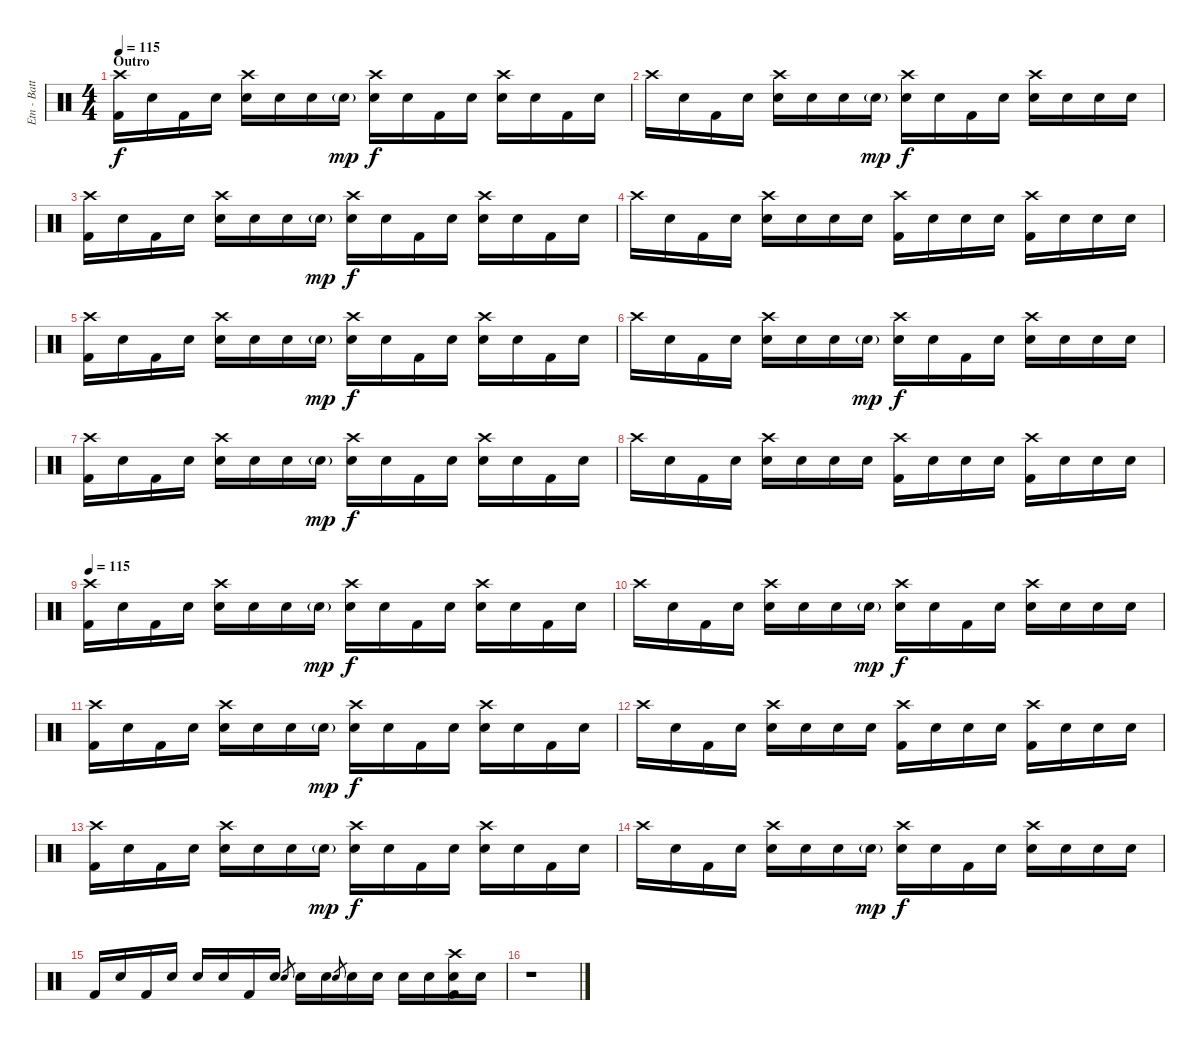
\track ("Etn - Batterie" "Etn - Batt") {instrument percussion}
\staff {score}
\articulation defaults
\ts (4 4)
\section ("" "Outro")
\tempo 115
\clef neutral
\ks c
("Crash high (hit)" "Kick (hit) 2").16{dy f volume 16 balance 8} "Snare (hit)".16 "Kick (hit) 2".16 "Snare (hit)".16 ("Crash high (hit)" "Electric Snare (hit)").16 "Snare (hit)".16 "Snare (hit)".16 "Electric Snare (hit)"{g}.16{dy mp} ("Crash high (hit)" "Electric Snare (hit)").16{dy f} "Snare (hit)".16 "Kick (hit) 2".16 "Snare (hit)".16 ("Crash high (hit)" "Electric Snare (hit)").16 "Snare (hit)".16 "Kick (hit) 2".16 "Snare (hit)".16 |
"Crash high (hit)".16 "Snare (hit)".16 "Kick (hit) 2".16 "Snare (hit)".16 ("Crash high (hit)" "Electric Snare (hit)").16 "Snare (hit)".16 "Snare (hit)".16 "Electric Snare (hit)"{g}.16{dy mp} ("Crash high (hit)" "Electric Snare (hit)").16{dy f} "Snare (hit)".16 "Kick (hit) 2".16 "Snare (hit)".16 ("Crash high (hit)" "Electric Snare (hit)").16 "Snare (hit)".16 "Electric Snare (hit)".16 "Electric Snare (hit)".16 |
("Crash high (hit)" "Kick (hit) 2").16 "Snare (hit)".16 "Kick (hit) 2".16 "Snare (hit)".16 ("Crash high (hit)" "Electric Snare (hit)").16 "Snare (hit)".16 "Snare (hit)".16 "Electric Snare (hit)"{g}.16{dy mp} ("Crash high (hit)" "Electric Snare (hit)").16{dy f} "Snare (hit)".16 "Kick (hit) 2".16 "Snare (hit)".16 ("Crash high (hit)" "Electric Snare (hit)").16 "Snare (hit)".16 "Kick (hit) 2".16 "Snare (hit)".16 |
"Crash high (hit)".16 "Snare (hit)".16 "Kick (hit) 2".16 "Snare (hit)".16 ("Crash high (hit)" "Electric Snare (hit)").16 "Snare (hit)".16 "Snare (hit)".16 "Snare (hit)".16 ("Crash high (hit)" "Kick (hit) 2").16 "Snare (hit)".16 "Electric Snare (hit)".16 "Snare (hit)".16 ("Crash high (hit)" "Kick (hit) 2").16 "Snare (hit)".16 "Electric Snare (hit)".16 "Snare (hit)".16 |
("Crash high (hit)" "Kick (hit) 2").16 "Snare (hit)".16 "Kick (hit) 2".16 "Snare (hit)".16 ("Crash high (hit)" "Electric Snare (hit)").16 "Snare (hit)".16 "Snare (hit)".16 "Electric Snare (hit)"{g}.16{dy mp} ("Crash high (hit)" "Electric Snare (hit)").16{dy f} "Snare (hit)".16 "Kick (hit) 2".16 "Snare (hit)".16 ("Crash high (hit)" "Electric Snare (hit)").16 "Snare (hit)".16 "Kick (hit) 2".16 "Snare (hit)".16 |
"Crash high (hit)".16 "Snare (hit)".16 "Kick (hit) 2".16 "Snare (hit)".16 ("Crash high (hit)" "Electric Snare (hit)").16 "Snare (hit)".16 "Snare (hit)".16 "Electric Snare (hit)"{g}.16{dy mp} ("Crash high (hit)" "Electric Snare (hit)").16{dy f} "Snare (hit)".16 "Kick (hit) 2".16 "Snare (hit)".16 ("Crash high (hit)" "Electric Snare (hit)").16 "Snare (hit)".16 "Electric Snare (hit)".16 "Electric Snare (hit)".16 |
("Crash high (hit)" "Kick (hit) 2").16 "Snare (hit)".16 "Kick (hit) 2".16 "Snare (hit)".16 ("Crash high (hit)" "Electric Snare (hit)").16 "Snare (hit)".16 "Snare (hit)".16 "Electric Snare (hit)"{g}.16{dy mp} ("Crash high (hit)" "Electric Snare (hit)").16{dy f} "Snare (hit)".16 "Kick (hit) 2".16 "Snare (hit)".16 ("Crash high (hit)" "Electric Snare (hit)").16 "Snare (hit)".16 "Kick (hit) 2".16 "Snare (hit)".16 |
"Crash high (hit)".16 "Snare (hit)".16 "Kick (hit) 2".16 "Snare (hit)".16 ("Crash high (hit)" "Electric Snare (hit)").16 "Snare (hit)".16 "Snare (hit)".16 "Snare (hit)".16 ("Crash high (hit)" "Kick (hit) 2").16 "Snare (hit)".16 "Electric Snare (hit)".16 "Snare (hit)".16 ("Crash high (hit)" "Kick (hit) 2").16 "Snare (hit)".16 "Electric Snare (hit)".16 "Snare (hit)".16 |
\section ("" "")
\tempo 115
("Crash high (hit)" "Kick (hit) 2").16{volume 16 balance 8} "Snare (hit)".16 "Kick (hit) 2".16 "Snare (hit)".16 ("Crash high (hit)" "Electric Snare (hit)").16 "Snare (hit)".16 "Snare (hit)".16 "Electric Snare (hit)"{g}.16{dy mp} ("Crash high (hit)" "Electric Snare (hit)").16{dy f} "Snare (hit)".16 "Kick (hit) 2".16 "Snare (hit)".16 ("Crash high (hit)" "Electric Snare (hit)").16 "Snare (hit)".16 "Kick (hit) 2".16 "Snare (hit)".16 |
"Crash high (hit)".16 "Snare (hit)".16 "Kick (hit) 2".16 "Snare (hit)".16 ("Crash high (hit)" "Electric Snare (hit)").16 "Snare (hit)".16 "Snare (hit)".16 "Electric Snare (hit)"{g}.16{dy mp} ("Crash high (hit)" "Electric Snare (hit)").16{dy f} "Snare (hit)".16 "Kick (hit) 2".16 "Snare (hit)".16 ("Crash high (hit)" "Electric Snare (hit)").16 "Snare (hit)".16 "Electric Snare (hit)".16 "Electric Snare (hit)".16 |
("Crash high (hit)" "Kick (hit) 2").16 "Snare (hit)".16 "Kick (hit) 2".16 "Snare (hit)".16 ("Crash high (hit)" "Electric Snare (hit)").16 "Snare (hit)".16 "Snare (hit)".16 "Electric Snare (hit)"{g}.16{dy mp} ("Crash high (hit)" "Electric Snare (hit)").16{dy f} "Snare (hit)".16 "Kick (hit) 2".16 "Snare (hit)".16 ("Crash high (hit)" "Electric Snare (hit)").16 "Snare (hit)".16 "Kick (hit) 2".16 "Snare (hit)".16 |
"Crash high (hit)".16 "Snare (hit)".16 "Kick (hit) 2".16 "Snare (hit)".16 ("Crash high (hit)" "Electric Snare (hit)").16 "Snare (hit)".16 "Snare (hit)".16 "Snare (hit)".16 ("Crash high (hit)" "Kick (hit) 2").16 "Snare (hit)".16 "Electric Snare (hit)".16 "Snare (hit)".16 ("Crash high (hit)" "Kick (hit) 2").16 "Snare (hit)".16 "Electric Snare (hit)".16 "Snare (hit)".16 |
("Crash high (hit)" "Kick (hit) 2").16 "Snare (hit)".16 "Kick (hit) 2".16 "Snare (hit)".16 ("Crash high (hit)" "Electric Snare (hit)").16 "Snare (hit)".16 "Snare (hit)".16 "Electric Snare (hit)"{g}.16{dy mp} ("Crash high (hit)" "Electric Snare (hit)").16{dy f} "Snare (hit)".16 "Kick (hit) 2".16 "Snare (hit)".16 ("Crash high (hit)" "Electric Snare (hit)").16 "Snare (hit)".16 "Kick (hit) 2".16 "Snare (hit)".16 |
"Crash high (hit)".16 "Snare (hit)".16 "Kick (hit) 2".16 "Snare (hit)".16 ("Crash high (hit)" "Electric Snare (hit)").16 "Snare (hit)".16 "Snare (hit)".16 "Electric Snare (hit)"{g}.16{dy mp} ("Crash high (hit)" "Electric Snare (hit)").16{dy f} "Snare (hit)".16 "Kick (hit) 2".16 "Snare (hit)".16 ("Crash high (hit)" "Electric Snare (hit)").16 "Snare (hit)".16 "Electric Snare (hit)".16 "Electric Snare (hit)".16 |
"Kick (hit) 2".16 "Snare (hit)".16 "Kick (hit) 2".16 "Snare (hit)".16 "Electric Snare (hit)".16 "Snare (hit)".16 "Kick (hit) 2".16 "Snare (hit)".16 "Electric Snare (hit)".8{gr} "Electric Snare (hit)".16 "Snare (hit)".16 "Electric Snare (hit)".8{gr} "Electric Snare (hit)".16 "Snare (hit)".16 "Electric Snare (hit)".16 "Snare (hit)".16 ("Crash high (hit)" "Electric Snare (hit)" "Kick (hit) 2").16 "Snare (hit)".16 |
r.1
